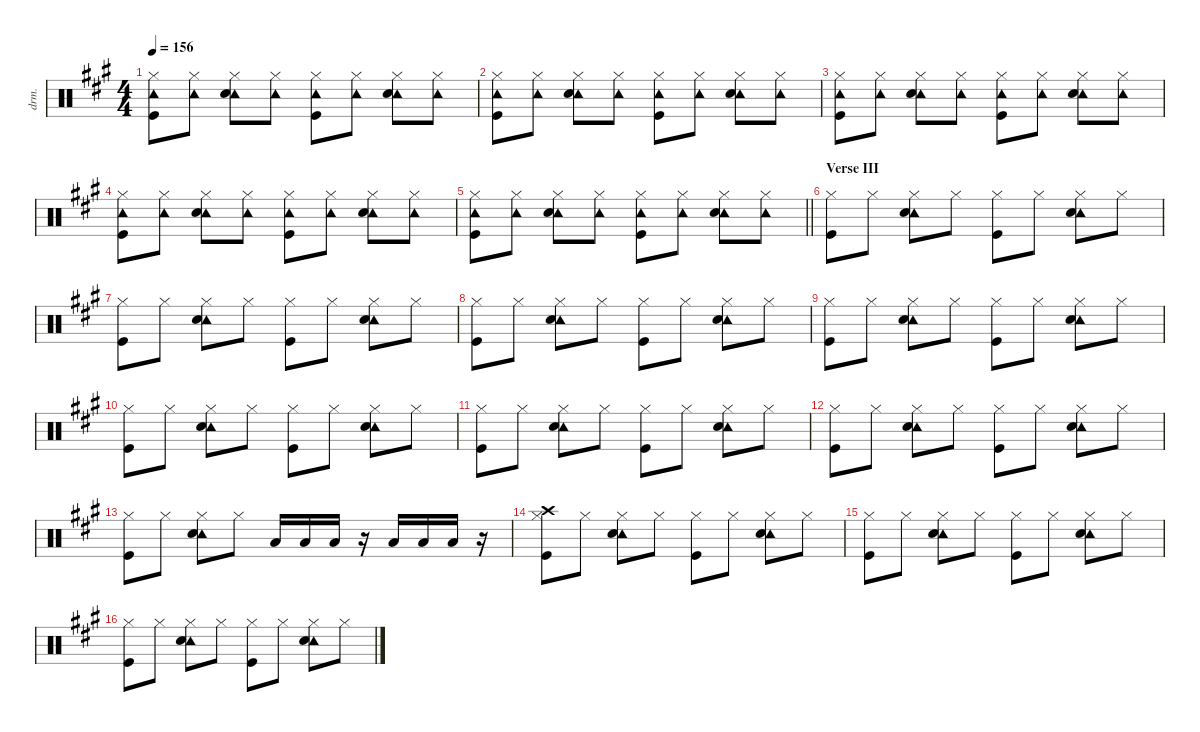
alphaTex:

\defaultSystemsLayout 4
\hideDynamics
\bracketExtendMode nobrackets
\otherSystemsTrackNameOrientation horizontal
\track ("Drums" "drm.") {instrument percussion}
\staff {score}
\articulation defaults
\ts (4 4)
\tempo 156
\clef neutral
\ks a
("Hi-Hat (closed)"{acc forcenatural} "Tambourine (hit)"{acc forcenatural} "Kick (hit)"{acc forcenatural}).8{dy f beam Down} ("Hi-Hat (closed)"{acc forcenatural} "Tambourine (hit)"{acc forcenatural}).8{beam Down} ("Hi-Hat (closed)"{acc forcenatural} "Tambourine (hit)"{acc forcenatural} "Snare (hit) 2"{acc forcenatural}).8{beam Down} ("Hi-Hat (closed)"{acc forcenatural} "Tambourine (hit)"{acc forcenatural}).8{beam Down} ("Hi-Hat (closed)"{acc forcenatural} "Tambourine (hit)"{acc forcenatural} "Kick (hit)"{acc forcenatural}).8{beam Down} ("Hi-Hat (closed)"{acc forcenatural} "Tambourine (hit)"{acc forcenatural}).8{beam Down} ("Hi-Hat (closed)"{acc forcenatural} "Tambourine (hit)"{acc forcenatural} "Snare (hit) 2"{acc forcenatural}).8{beam Down} ("Hi-Hat (closed)"{acc forcenatural} "Tambourine (hit)"{acc forcenatural}).8{beam Down} |
("Hi-Hat (closed)"{acc forcenatural} "Tambourine (hit)"{acc forcenatural} "Kick (hit)"{acc forcenatural}).8{beam Down} ("Hi-Hat (closed)"{acc forcenatural} "Tambourine (hit)"{acc forcenatural}).8{beam Down} ("Hi-Hat (closed)"{acc forcenatural} "Tambourine (hit)"{acc forcenatural} "Snare (hit) 2"{acc forcenatural}).8{beam Down} ("Hi-Hat (closed)"{acc forcenatural} "Tambourine (hit)"{acc forcenatural}).8{beam Down} ("Hi-Hat (closed)"{acc forcenatural} "Tambourine (hit)"{acc forcenatural} "Kick (hit)"{acc forcenatural}).8{beam Down} ("Hi-Hat (closed)"{acc forcenatural} "Tambourine (hit)"{acc forcenatural}).8{beam Down} ("Hi-Hat (closed)"{acc forcenatural} "Tambourine (hit)"{acc forcenatural} "Snare (hit) 2"{acc forcenatural}).8{beam Down} ("Hi-Hat (closed)"{acc forcenatural} "Tambourine (hit)"{acc forcenatural}).8{beam Down} |
("Hi-Hat (closed)"{acc forcenatural} "Tambourine (hit)"{acc forcenatural} "Kick (hit)"{acc forcenatural}).8{beam Down} ("Hi-Hat (closed)"{acc forcenatural} "Tambourine (hit)"{acc forcenatural}).8{beam Down} ("Hi-Hat (closed)"{acc forcenatural} "Tambourine (hit)"{acc forcenatural} "Snare (hit) 2"{acc forcenatural}).8{beam Down} ("Hi-Hat (closed)"{acc forcenatural} "Tambourine (hit)"{acc forcenatural}).8{beam Down} ("Hi-Hat (closed)"{acc forcenatural} "Tambourine (hit)"{acc forcenatural} "Kick (hit)"{acc forcenatural}).8{beam Down} ("Hi-Hat (closed)"{acc forcenatural} "Tambourine (hit)"{acc forcenatural}).8{beam Down} ("Hi-Hat (closed)"{acc forcenatural} "Tambourine (hit)"{acc forcenatural} "Snare (hit) 2"{acc forcenatural}).8{beam Down} ("Hi-Hat (closed)"{acc forcenatural} "Tambourine (hit)"{acc forcenatural}).8{beam Down} |
("Hi-Hat (closed)"{acc forcenatural} "Tambourine (hit)"{acc forcenatural} "Kick (hit)"{acc forcenatural}).8{beam Down} ("Hi-Hat (closed)"{acc forcenatural} "Tambourine (hit)"{acc forcenatural}).8{beam Down} ("Hi-Hat (closed)"{acc forcenatural} "Tambourine (hit)"{acc forcenatural} "Snare (hit) 2"{acc forcenatural}).8{beam Down} ("Hi-Hat (closed)"{acc forcenatural} "Tambourine (hit)"{acc forcenatural}).8{beam Down} ("Hi-Hat (closed)"{acc forcenatural} "Tambourine (hit)"{acc forcenatural} "Kick (hit)"{acc forcenatural}).8{beam Down} ("Hi-Hat (closed)"{acc forcenatural} "Tambourine (hit)"{acc forcenatural}).8{beam Down} ("Hi-Hat (closed)"{acc forcenatural} "Tambourine (hit)"{acc forcenatural} "Snare (hit) 2"{acc forcenatural}).8{beam Down} ("Hi-Hat (closed)"{acc forcenatural} "Tambourine (hit)"{acc forcenatural}).8{beam Down} |
\barLineRight lightlight
("Hi-Hat (closed)"{acc forcenatural} "Tambourine (hit)"{acc forcenatural} "Kick (hit)"{acc forcenatural}).8{beam Down} ("Hi-Hat (closed)"{acc forcenatural} "Tambourine (hit)"{acc forcenatural}).8{beam Down} ("Hi-Hat (closed)"{acc forcenatural} "Tambourine (hit)"{acc forcenatural} "Snare (hit) 2"{acc forcenatural}).8{beam Down} ("Hi-Hat (closed)"{acc forcenatural} "Tambourine (hit)"{acc forcenatural}).8{beam Down} ("Hi-Hat (closed)"{acc forcenatural} "Tambourine (hit)"{acc forcenatural} "Kick (hit)"{acc forcenatural}).8{beam Down} ("Hi-Hat (closed)"{acc forcenatural} "Tambourine (hit)"{acc forcenatural}).8{beam Down} ("Hi-Hat (closed)"{acc forcenatural} "Tambourine (hit)"{acc forcenatural} "Snare (hit) 2"{acc forcenatural}).8{beam Down} ("Hi-Hat (closed)"{acc forcenatural} "Tambourine (hit)"{acc forcenatural}).8{beam Down} |
\section ("" "Verse III")
("Hi-Hat (closed)"{acc forcenatural} "Kick (hit)"{acc forcenatural}).8{beam Down} "Hi-Hat (closed)"{acc forcenatural}.8{beam Down} ("Hi-Hat (closed)"{acc forcenatural} "Tambourine (hit)"{acc forcenatural} "Snare (hit) 2"{acc forcenatural}).8{beam Down} "Hi-Hat (closed)"{acc forcenatural}.8{beam Down} ("Hi-Hat (closed)"{acc forcenatural} "Kick (hit)"{acc forcenatural}).8{beam Down} "Hi-Hat (closed)"{acc forcenatural}.8{beam Down} ("Hi-Hat (closed)"{acc forcenatural} "Tambourine (hit)"{acc forcenatural} "Snare (hit) 2"{acc forcenatural}).8{beam Down} "Hi-Hat (closed)"{acc forcenatural}.8{beam Down} |
("Hi-Hat (closed)"{acc forcenatural} "Kick (hit)"{acc forcenatural}).8{beam Down} "Hi-Hat (closed)"{acc forcenatural}.8{beam Down} ("Hi-Hat (closed)"{acc forcenatural} "Tambourine (hit)"{acc forcenatural} "Snare (hit) 2"{acc forcenatural}).8{beam Down} "Hi-Hat (closed)"{acc forcenatural}.8{beam Down} ("Hi-Hat (closed)"{acc forcenatural} "Kick (hit)"{acc forcenatural}).8{beam Down} "Hi-Hat (closed)"{acc forcenatural}.8{beam Down} ("Hi-Hat (closed)"{acc forcenatural} "Tambourine (hit)"{acc forcenatural} "Snare (hit) 2"{acc forcenatural}).8{beam Down} "Hi-Hat (closed)"{acc forcenatural}.8{beam Down} |
("Hi-Hat (closed)"{acc forcenatural} "Kick (hit)"{acc forcenatural}).8{beam Down} "Hi-Hat (closed)"{acc forcenatural}.8{beam Down} ("Hi-Hat (closed)"{acc forcenatural} "Tambourine (hit)"{acc forcenatural} "Snare (hit) 2"{acc forcenatural}).8{beam Down} "Hi-Hat (closed)"{acc forcenatural}.8{beam Down} ("Hi-Hat (closed)"{acc forcenatural} "Kick (hit)"{acc forcenatural}).8{beam Down} "Hi-Hat (closed)"{acc forcenatural}.8{beam Down} ("Hi-Hat (closed)"{acc forcenatural} "Tambourine (hit)"{acc forcenatural} "Snare (hit) 2"{acc forcenatural}).8{beam Down} "Hi-Hat (closed)"{acc forcenatural}.8{beam Down} |
("Hi-Hat (closed)"{acc forcenatural} "Kick (hit)"{acc forcenatural}).8{beam Down} "Hi-Hat (closed)"{acc forcenatural}.8{beam Down} ("Hi-Hat (closed)"{acc forcenatural} "Tambourine (hit)"{acc forcenatural} "Snare (hit) 2"{acc forcenatural}).8{beam Down} "Hi-Hat (closed)"{acc forcenatural}.8{beam Down} ("Hi-Hat (closed)"{acc forcenatural} "Kick (hit)"{acc forcenatural}).8{beam Down} "Hi-Hat (closed)"{acc forcenatural}.8{beam Down} ("Hi-Hat (closed)"{acc forcenatural} "Tambourine (hit)"{acc forcenatural} "Snare (hit) 2"{acc forcenatural}).8{beam Down} "Hi-Hat (closed)"{acc forcenatural}.8{beam Down} |
("Hi-Hat (closed)"{acc forcenatural} "Kick (hit)"{acc forcenatural}).8{beam Down} "Hi-Hat (closed)"{acc forcenatural}.8{beam Down} ("Hi-Hat (closed)"{acc forcenatural} "Tambourine (hit)"{acc forcenatural} "Snare (hit) 2"{acc forcenatural}).8{beam Down} "Hi-Hat (closed)"{acc forcenatural}.8{beam Down} ("Hi-Hat (closed)"{acc forcenatural} "Kick (hit)"{acc forcenatural}).8{beam Down} "Hi-Hat (closed)"{acc forcenatural}.8{beam Down} ("Hi-Hat (closed)"{acc forcenatural} "Tambourine (hit)"{acc forcenatural} "Snare (hit) 2"{acc forcenatural}).8{beam Down} "Hi-Hat (closed)"{acc forcenatural}.8{beam Down} |
("Hi-Hat (closed)"{acc forcenatural} "Kick (hit)"{acc forcenatural}).8{beam Down} "Hi-Hat (closed)"{acc forcenatural}.8{beam Down} ("Hi-Hat (closed)"{acc forcenatural} "Tambourine (hit)"{acc forcenatural} "Snare (hit) 2"{acc forcenatural}).8{beam Down} "Hi-Hat (closed)"{acc forcenatural}.8{beam Down} ("Hi-Hat (closed)"{acc forcenatural} "Kick (hit)"{acc forcenatural}).8{beam Down} "Hi-Hat (closed)"{acc forcenatural}.8{beam Down} ("Hi-Hat (closed)"{acc forcenatural} "Tambourine (hit)"{acc forcenatural} "Snare (hit) 2"{acc forcenatural}).8{beam Down} "Hi-Hat (closed)"{acc forcenatural}.8{beam Down} |
("Hi-Hat (closed)"{acc forcenatural} "Kick (hit)"{acc forcenatural}).8{beam Down} "Hi-Hat (closed)"{acc forcenatural}.8{beam Down} ("Hi-Hat (closed)"{acc forcenatural} "Tambourine (hit)"{acc forcenatural} "Snare (hit) 2"{acc forcenatural}).8{beam Down} "Hi-Hat (closed)"{acc forcenatural}.8{beam Down} ("Hi-Hat (closed)"{acc forcenatural} "Kick (hit)"{acc forcenatural}).8{beam Down} "Hi-Hat (closed)"{acc forcenatural}.8{beam Down} ("Hi-Hat (closed)"{acc forcenatural} "Tambourine (hit)"{acc forcenatural} "Snare (hit) 2"{acc forcenatural}).8{beam Down} "Hi-Hat (closed)"{acc forcenatural}.8{beam Down} |
("Hi-Hat (closed)"{acc forcenatural} "Kick (hit)"{acc forcenatural}).8{beam Down} "Hi-Hat (closed)"{acc forcenatural}.8{beam Down} ("Hi-Hat (closed)"{acc forcenatural} "Tambourine (hit)"{acc forcenatural} "Snare (hit) 2"{acc forcenatural}).8{beam Down} "Hi-Hat (closed)"{acc forcenatural}.8{beam Down} "Low Tom (hit)"{acc forcenatural}.16{beam Up} "Low Tom (hit)"{acc forcenatural}.16{beam Up} "Low Tom (hit)"{acc forcenatural}.16{beam Up} r.16{beam Up} "Low Floor Tom (hit)"{acc forcenatural}.16{beam Up} "Low Floor Tom (hit)"{acc forcenatural}.16{beam Up} "Low Floor Tom (hit)"{acc forcenatural}.16{beam Up} r.16{beam Up} |
("Hi-Hat (closed)"{acc forcenatural} "Crash high (hit)"{acc forcenatural} "Kick (hit)"{acc forcenatural}).8{beam Down} "Hi-Hat (closed)"{acc forcenatural}.8{beam Down} ("Hi-Hat (closed)"{acc forcenatural} "Tambourine (hit)"{acc forcenatural} "Snare (hit) 2"{acc forcenatural}).8{beam Down} "Hi-Hat (closed)"{acc forcenatural}.8{beam Down} ("Hi-Hat (closed)"{acc forcenatural} "Kick (hit)"{acc forcenatural}).8{beam Down} "Hi-Hat (closed)"{acc forcenatural}.8{beam Down} ("Hi-Hat (closed)"{acc forcenatural} "Tambourine (hit)"{acc forcenatural} "Snare (hit) 2"{acc forcenatural}).8{beam Down} "Hi-Hat (closed)"{acc forcenatural}.8{beam Down} |
("Hi-Hat (closed)"{acc forcenatural} "Kick (hit)"{acc forcenatural}).8{beam Down} "Hi-Hat (closed)"{acc forcenatural}.8{beam Down} ("Hi-Hat (closed)"{acc forcenatural} "Tambourine (hit)"{acc forcenatural} "Snare (hit) 2"{acc forcenatural}).8{beam Down} "Hi-Hat (closed)"{acc forcenatural}.8{beam Down} ("Hi-Hat (closed)"{acc forcenatural} "Kick (hit)"{acc forcenatural}).8{beam Down} "Hi-Hat (closed)"{acc forcenatural}.8{beam Down} ("Hi-Hat (closed)"{acc forcenatural} "Tambourine (hit)"{acc forcenatural} "Snare (hit) 2"{acc forcenatural}).8{beam Down} "Hi-Hat (closed)"{acc forcenatural}.8{beam Down} |
("Hi-Hat (closed)"{acc forcenatural} "Kick (hit)"{acc forcenatural}).8{beam Down} "Hi-Hat (closed)"{acc forcenatural}.8{beam Down} ("Hi-Hat (closed)"{acc forcenatural} "Tambourine (hit)"{acc forcenatural} "Snare (hit) 2"{acc forcenatural}).8{beam Down} "Hi-Hat (closed)"{acc forcenatural}.8{beam Down} ("Hi-Hat (closed)"{acc forcenatural} "Kick (hit)"{acc forcenatural}).8{beam Down} "Hi-Hat (closed)"{acc forcenatural}.8{beam Down} ("Hi-Hat (closed)"{acc forcenatural} "Tambourine (hit)"{acc forcenatural} "Snare (hit) 2"{acc forcenatural}).8{beam Down} "Hi-Hat (closed)"{acc forcenatural}.8{beam Down}
